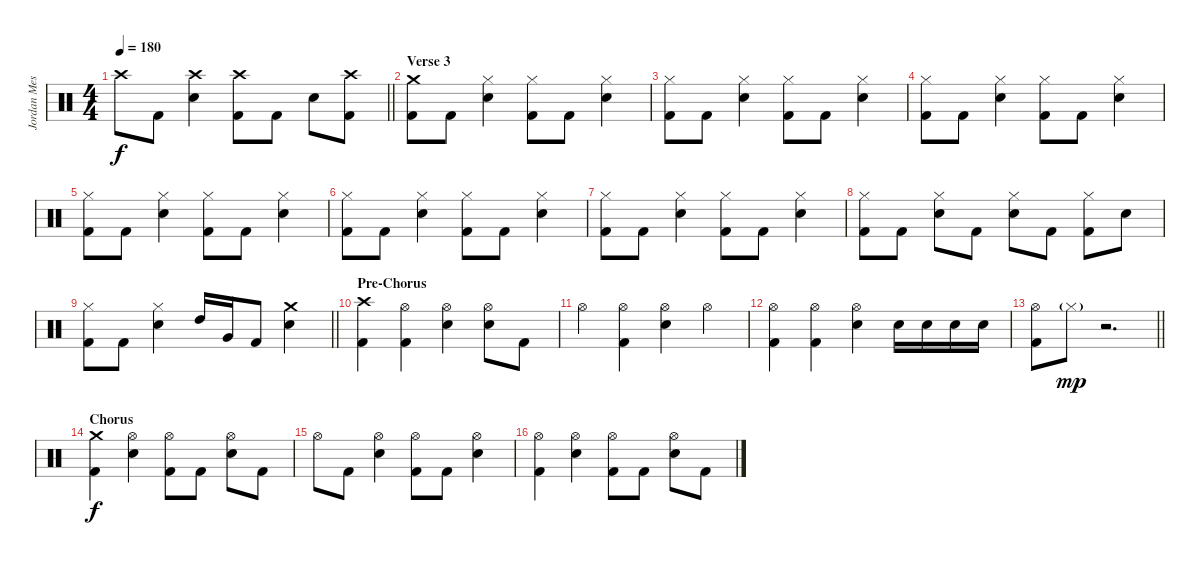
\track ("Jordan Messer " "Jordan Mes") {instrument percussion}
\staff {score}
\articulation defaults
\ts (4 4)
\tempo 180
\clef neutral
\barLineRight lightlight
\ks c "Crash high (hit)".8{dy f} "Kick (hit) 2".8
("Crash high (hit)" "Snare (hit) 2").4 ("Crash high (hit)" "Kick (hit) 2").8 "Kick (hit) 2".8 "Snare (hit) 2".8 ("Crash high (hit)" "Kick (hit) 2").8 |
\section ("" "Verse 3")
("Crash medium (hit)" "Kick (hit) 2").8 "Kick (hit) 2".8 ("Hi-Hat (closed)" "Snare (hit) 2").4 ("Hi-Hat (closed)" "Kick (hit) 2").8 "Kick (hit) 2".8 ("Hi-Hat (closed)" "Snare (hit) 2").4 |
("Hi-Hat (closed)" "Kick (hit) 2").8 "Kick (hit) 2".8 ("Hi-Hat (closed)" "Snare (hit) 2").4 ("Hi-Hat (closed)" "Kick (hit) 2").8 "Kick (hit) 2".8 ("Hi-Hat (closed)" "Snare (hit) 2").4 |
("Hi-Hat (closed)" "Kick (hit) 2").8 "Kick (hit) 2".8 ("Hi-Hat (closed)" "Snare (hit) 2").4 ("Hi-Hat (closed)" "Kick (hit) 2").8 "Kick (hit) 2".8 ("Hi-Hat (closed)" "Snare (hit) 2").4 |
("Hi-Hat (closed)" "Kick (hit) 2").8 "Kick (hit) 2".8 ("Hi-Hat (closed)" "Snare (hit) 2").4 ("Hi-Hat (closed)" "Kick (hit) 2").8 "Kick (hit) 2".8 ("Hi-Hat (closed)" "Snare (hit) 2").4 |
("Hi-Hat (closed)" "Kick (hit) 2").8 "Kick (hit) 2".8 ("Hi-Hat (closed)" "Snare (hit) 2").4 ("Hi-Hat (closed)" "Kick (hit) 2").8 "Kick (hit) 2".8 ("Hi-Hat (closed)" "Snare (hit) 2").4 |
("Hi-Hat (closed)" "Kick (hit) 2").8 "Kick (hit) 2".8 ("Hi-Hat (closed)" "Snare (hit) 2").4 ("Hi-Hat (closed)" "Kick (hit) 2").8 "Kick (hit) 2".8 ("Hi-Hat (closed)" "Snare (hit) 2").4 |
("Hi-Hat (closed)" "Kick (hit) 2").8 "Kick (hit) 2".8 ("Hi-Hat (closed)" "Snare (hit) 2").8 "Kick (hit) 2".8 ("Hi-Hat (closed)" "Snare (hit) 2").8 "Kick (hit) 2".8 ("Hi-Hat (closed)" "Kick (hit) 2").8 "Snare (hit) 2".8 |
\barLineRight lightlight
("Hi-Hat (closed)" "Kick (hit) 2").8 "Kick (hit) 2".8 ("Hi-Hat (closed)" "Snare (hit) 2").4 "High Tom (hit)".16 "Very Low Tom (hit)".16 "Kick (hit) 2".8 ("Crash medium (hit)" "Snare (hit) 2").4 |
\section ("" "Pre-Chorus")
("Crash high (hit)" "Kick (hit) 2").4 ("Hi-Hat (open)" "Kick (hit) 2").4 ("Hi-Hat (open)" "Snare (hit) 2").4 ("Hi-Hat (open)" "Snare (hit) 2").8 "Kick (hit) 2".8 |
"Hi-Hat (open)".4 ("Hi-Hat (open)" "Kick (hit) 2").4 ("Hi-Hat (open)" "Snare (hit) 2").4 "Hi-Hat (open)".4 |
("Hi-Hat (open)" "Kick (hit) 2").4 ("Hi-Hat (open)" "Kick (hit) 2").4 ("Hi-Hat (open)" "Snare (hit) 2").4 "Snare (hit) 2".16 "Snare (hit) 2".16 "Snare (hit) 2".16 "Snare (hit) 2".16 |
\barLineRight lightlight
("Hi-Hat (open)" "Kick (hit) 2").8 "Hi-Hat (closed)"{g}.8{dy mp} r.2{d} |
\section ("" "Chorus")
("Crash medium (hit)" "Kick (hit) 2").4{dy f} ("Hi-Hat (open)" "Snare (hit) 2").4 ("Hi-Hat (open)" "Kick (hit) 2").8 "Kick (hit) 2".8 ("Hi-Hat (open)" "Snare (hit) 2").8 "Kick (hit) 2".8 |
"Hi-Hat (open)".8 "Kick (hit) 2".8 ("Hi-Hat (open)" "Snare (hit) 2").4 ("Hi-Hat (open)" "Kick (hit) 2").8 "Kick (hit) 2".8 ("Hi-Hat (open)" "Snare (hit) 2").4 |
("Hi-Hat (open)" "Kick (hit) 2").4 ("Hi-Hat (open)" "Snare (hit) 2").4 ("Hi-Hat (open)" "Kick (hit) 2").8 "Kick (hit) 2".8 ("Hi-Hat (open)" "Snare (hit) 2").8 "Kick (hit) 2".8
